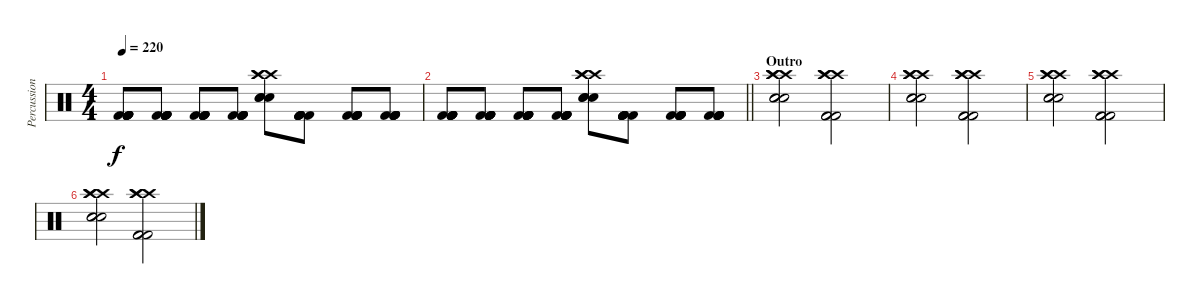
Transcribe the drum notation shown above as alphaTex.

\track ("Percussion" "Percussion") {instrument percussion}
\staff {score}
\articulation defaults
\ts (4 4)
\tempo 220
\clef neutral
\ks c
("Kick (hit) 2" "Kick (hit) 2" "Kick (hit) 2" "Kick (hit) 2" "Kick (hit) 2" "Kick (hit) 2").8{dy f} ("Kick (hit) 2" "Kick (hit) 2" "Kick (hit) 2" "Kick (hit) 2" "Kick (hit) 2" "Kick (hit) 2").8 ("Kick (hit) 2" "Kick (hit) 2" "Kick (hit) 2" "Kick (hit) 2" "Kick (hit) 2" "Kick (hit) 2").8 ("Kick (hit) 2" "Kick (hit) 2" "Kick (hit) 2" "Kick (hit) 2" "Kick (hit) 2" "Kick (hit) 2").8 ("Crash high (hit)" "Crash high (hit)" "Crash high (hit)" "Snare (hit) 2" "Snare (hit) 2" "Snare (hit) 2").8 ("Kick (hit) 2" "Kick (hit) 2" "Kick (hit) 2" "Kick (hit) 2" "Kick (hit) 2" "Kick (hit) 2").8 ("Kick (hit) 2" "Kick (hit) 2" "Kick (hit) 2" "Kick (hit) 2" "Kick (hit) 2" "Kick (hit) 2").8 ("Kick (hit) 2" "Kick (hit) 2" "Kick (hit) 2" "Kick (hit) 2" "Kick (hit) 2" "Kick (hit) 2").8 |
\barLineRight lightlight
("Kick (hit) 2" "Kick (hit) 2" "Kick (hit) 2" "Kick (hit) 2" "Kick (hit) 2" "Kick (hit) 2").8 ("Kick (hit) 2" "Kick (hit) 2" "Kick (hit) 2" "Kick (hit) 2" "Kick (hit) 2" "Kick (hit) 2").8 ("Kick (hit) 2" "Kick (hit) 2" "Kick (hit) 2" "Kick (hit) 2" "Kick (hit) 2" "Kick (hit) 2").8 ("Kick (hit) 2" "Kick (hit) 2" "Kick (hit) 2" "Kick (hit) 2" "Kick (hit) 2" "Kick (hit) 2").8 ("Crash high (hit)" "Crash high (hit)" "Crash high (hit)" "Snare (hit) 2" "Snare (hit) 2" "Snare (hit) 2").8 ("Kick (hit) 2" "Kick (hit) 2" "Kick (hit) 2" "Kick (hit) 2" "Kick (hit) 2" "Kick (hit) 2").8 ("Kick (hit) 2" "Kick (hit) 2" "Kick (hit) 2" "Kick (hit) 2" "Kick (hit) 2" "Kick (hit) 2").8 ("Kick (hit) 2" "Kick (hit) 2" "Kick (hit) 2" "Kick (hit) 2" "Kick (hit) 2" "Kick (hit) 2").8 |
\section ("" "Outro")
("Crash high (hit)" "Crash high (hit)" "Crash high (hit)" "Snare (hit) 2" "Snare (hit) 2" "Snare (hit) 2").2 ("Crash high (hit)" "Crash high (hit)" "Crash high (hit)" "Kick (hit) 2" "Kick (hit) 2" "Kick (hit) 2").2 |
("Crash high (hit)" "Crash high (hit)" "Crash high (hit)" "Snare (hit) 2" "Snare (hit) 2" "Snare (hit) 2").2 ("Crash high (hit)" "Crash high (hit)" "Crash high (hit)" "Kick (hit) 2" "Kick (hit) 2" "Kick (hit) 2").2 |
("Crash high (hit)" "Crash high (hit)" "Crash high (hit)" "Snare (hit) 2" "Snare (hit) 2" "Snare (hit) 2").2 ("Crash high (hit)" "Crash high (hit)" "Crash high (hit)" "Kick (hit) 2" "Kick (hit) 2" "Kick (hit) 2").2 |
("Crash high (hit)" "Crash high (hit)" "Crash high (hit)" "Snare (hit) 2" "Snare (hit) 2" "Snare (hit) 2").2 ("Crash high (hit)" "Crash high (hit)" "Crash high (hit)" "Kick (hit) 2" "Kick (hit) 2" "Kick (hit) 2").2
